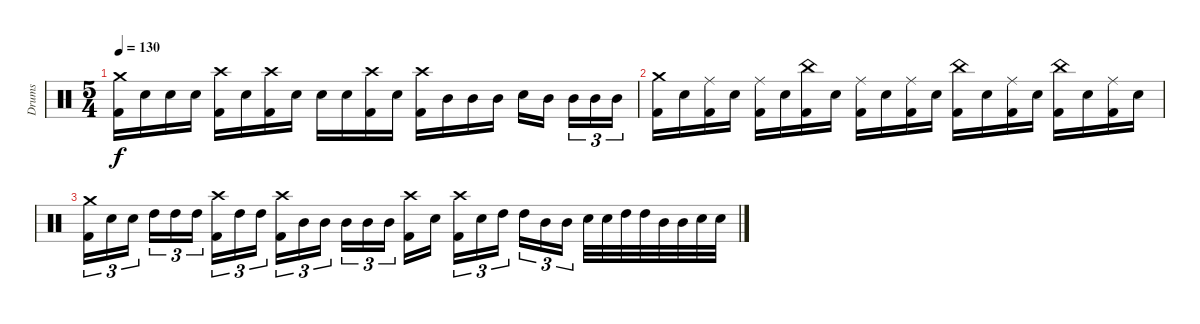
\track ("Drums" "Drums") {instrument percussion}
\staff {score}
\articulation defaults
\ts (5 4)
\tempo 130
\clef neutral
\ks c
("Crash medium (hit)" "Kick (hit) 2").16{dy f} "Electric Snare (hit)".16 "Electric Snare (hit)".16 "Electric Snare (hit)".16 ("Crash high (hit)" "Kick (hit) 2").16 "Electric Snare (hit)".16 ("Crash high (hit)" "Kick (hit) 2").16 "Electric Snare (hit)".16 "Electric Snare (hit)".16 "Electric Snare (hit)".16 ("Crash high (hit)" "Kick (hit) 2").16 "Electric Snare (hit)".16 ("Crash high (hit)" "Kick (hit) 2").16 "Mid Tom (hit)".16 "Mid Tom (hit)".16 "Mid Tom (hit)".16 "Electric Snare (hit)".16 "Mid Tom (hit)".16{beam splitsecondary} "Mid Tom (hit)".16{tu (3 2)} "Mid Tom (hit)".16{tu (3 2)} "Mid Tom (hit)".16{tu (3 2)} |
("Crash medium (hit)" "Kick (hit) 2").16 "Electric Snare (hit)".16 ("Ride (middle)" "Kick (hit) 2").16 "Electric Snare (hit)".16 ("Ride (middle)" "Kick (hit) 2").16 "Electric Snare (hit)".16 ("China (hit)" "Kick (hit) 2").16 "Electric Snare (hit)".16 ("Ride (middle)" "Kick (hit) 2").16 "Electric Snare (hit)".16 ("Ride (middle)" "Kick (hit) 2").16 "Electric Snare (hit)".16 ("China (hit)" "Kick (hit) 2").16 "Electric Snare (hit)".16 ("Ride (middle)" "Kick (hit) 2").16 "Electric Snare (hit)".16 ("China (hit)" "Kick (hit) 2").16 "Electric Snare (hit)".16 ("Ride (middle)" "Kick (hit) 2").16 "Electric Snare (hit)".16 |
("Crash medium (hit)" "Kick (hit) 2").16{tu (3 2)} "Electric Snare (hit)".16{tu (3 2)} "Electric Snare (hit)".16{tu (3 2) beam splitsecondary} "High Tom (hit)".16{tu (3 2)} "High Tom (hit)".16{tu (3 2)} "High Tom (hit)".16{tu (3 2)} ("Crash high (hit)" "Kick (hit) 2").16{tu (3 2)} "High Tom (hit)".16{tu (3 2)} "High Tom (hit)".16{tu (3 2) beam splitsecondary} ("Crash high (hit)" "Kick (hit) 2").16{tu (3 2)} "Mid Tom (hit)".16{tu (3 2)} "Mid Tom (hit)".16{tu (3 2)} "Mid Tom (hit)".16{tu (3 2)} "Mid Tom (hit)".16{tu (3 2)} "Mid Tom (hit)".16{tu (3 2) beam splitsecondary} ("Crash high (hit)" "Kick (hit) 2").16 "Electric Snare (hit)".16 ("Crash high (hit)" "Kick (hit) 2").16{tu (3 2)} "Electric Snare (hit)".16{tu (3 2)} "High Tom (hit)".16{tu (3 2) beam splitsecondary} "High Tom (hit)".16{tu (3 2)} "Mid Tom (hit)".16{tu (3 2)} "Mid Tom (hit)".16{tu (3 2)} "Electric Snare (hit)".32 "Electric Snare (hit)".32 "High Tom (hit)".32 "High Tom (hit)".32 "Mid Tom (hit)".32 "Mid Tom (hit)".32 "Electric Snare (hit)".32 "Electric Snare (hit)".32
